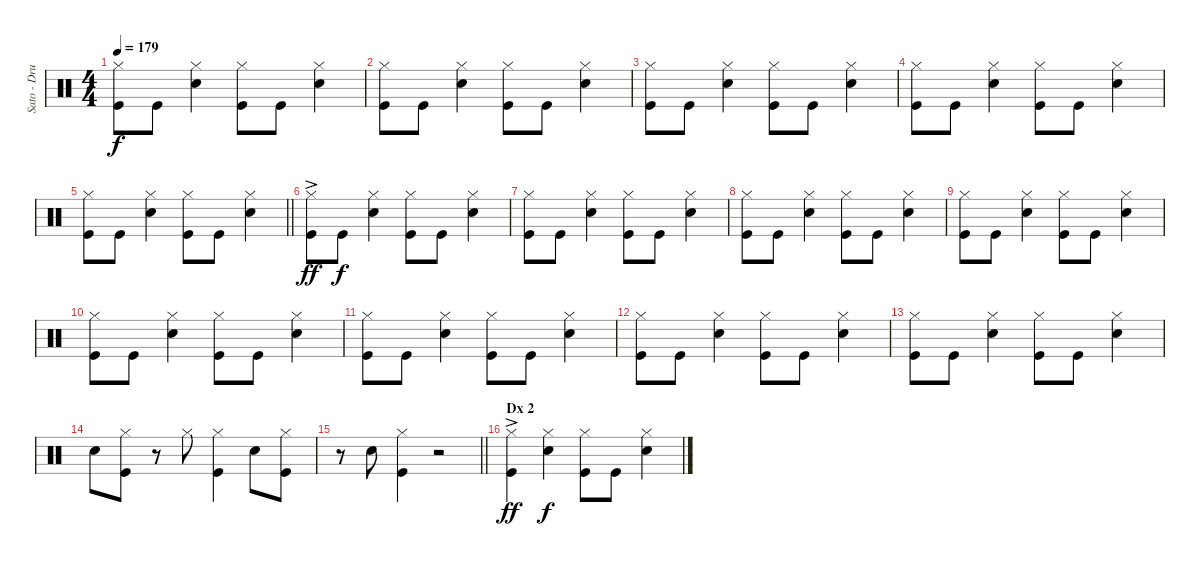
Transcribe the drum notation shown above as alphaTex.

\track ("Sato - Drums" "Sato - Dru") {instrument percussion}
\staff {score}
\articulation defaults
\ts (4 4)
\tempo 179
\clef neutral
\ks c
("Hi-Hat (closed)" "Kick (hit)").8{dy f} "Kick (hit)".8 ("Hi-Hat (closed)" "Electric Snare (hit)").4 ("Hi-Hat (closed)" "Kick (hit)").8 "Kick (hit)".8 ("Hi-Hat (closed)" "Electric Snare (hit)").4 |
("Hi-Hat (closed)" "Kick (hit)").8 "Kick (hit)".8 ("Hi-Hat (closed)" "Electric Snare (hit)").4 ("Hi-Hat (closed)" "Kick (hit)").8 "Kick (hit)".8 ("Hi-Hat (closed)" "Electric Snare (hit)").4 |
("Hi-Hat (closed)" "Kick (hit)").8 "Kick (hit)".8 ("Hi-Hat (closed)" "Electric Snare (hit)").4 ("Hi-Hat (closed)" "Kick (hit)").8 "Kick (hit)".8 ("Hi-Hat (closed)" "Electric Snare (hit)").4 |
("Hi-Hat (closed)" "Kick (hit)").8 "Kick (hit)".8 ("Hi-Hat (closed)" "Electric Snare (hit)").4 ("Hi-Hat (closed)" "Kick (hit)").8 "Kick (hit)".8 ("Hi-Hat (closed)" "Electric Snare (hit)").4 |
\barLineRight lightlight
("Hi-Hat (closed)" "Kick (hit)").8 "Kick (hit)".8 ("Hi-Hat (closed)" "Electric Snare (hit)").4 ("Hi-Hat (closed)" "Kick (hit)").8 "Kick (hit)".8 ("Hi-Hat (closed)" "Electric Snare (hit)").4 |
("Hi-Hat (closed)"{ac} "Kick (hit)"{ac}).8{dy ff} "Kick (hit)".8{dy f} ("Hi-Hat (closed)" "Electric Snare (hit)").4 ("Hi-Hat (closed)" "Kick (hit)").8 "Kick (hit)".8 ("Hi-Hat (closed)" "Electric Snare (hit)").4 |
("Hi-Hat (closed)" "Kick (hit)").8 "Kick (hit)".8 ("Hi-Hat (closed)" "Electric Snare (hit)").4 ("Hi-Hat (closed)" "Kick (hit)").8 "Kick (hit)".8 ("Hi-Hat (closed)" "Electric Snare (hit)").4 |
("Hi-Hat (closed)" "Kick (hit)").8 "Kick (hit)".8 ("Hi-Hat (closed)" "Electric Snare (hit)").4 ("Hi-Hat (closed)" "Kick (hit)").8 "Kick (hit)".8 ("Hi-Hat (closed)" "Electric Snare (hit)").4 |
("Hi-Hat (closed)" "Kick (hit)").8 "Kick (hit)".8 ("Hi-Hat (closed)" "Electric Snare (hit)").4 ("Hi-Hat (closed)" "Kick (hit)").8 "Kick (hit)".8 ("Hi-Hat (closed)" "Electric Snare (hit)").4 |
("Hi-Hat (closed)" "Kick (hit)").8 "Kick (hit)".8 ("Hi-Hat (closed)" "Electric Snare (hit)").4 ("Hi-Hat (closed)" "Kick (hit)").8 "Kick (hit)".8 ("Hi-Hat (closed)" "Electric Snare (hit)").4 |
("Hi-Hat (closed)" "Kick (hit)").8 "Kick (hit)".8 ("Hi-Hat (closed)" "Electric Snare (hit)").4 ("Hi-Hat (closed)" "Kick (hit)").8 "Kick (hit)".8 ("Hi-Hat (closed)" "Electric Snare (hit)").4 |
("Hi-Hat (closed)" "Kick (hit)").8 "Kick (hit)".8 ("Hi-Hat (closed)" "Electric Snare (hit)").4 ("Hi-Hat (closed)" "Kick (hit)").8 "Kick (hit)".8 ("Hi-Hat (closed)" "Electric Snare (hit)").4 |
("Hi-Hat (closed)" "Kick (hit)").8 "Kick (hit)".8 ("Hi-Hat (closed)" "Electric Snare (hit)").4 ("Hi-Hat (closed)" "Kick (hit)").8 "Kick (hit)".8 ("Hi-Hat (closed)" "Electric Snare (hit)").4 |
"Electric Snare (hit)".8 ("Hi-Hat (closed)" "Kick (hit)").8 r.8 "Hi-Hat (closed)".8 ("Hi-Hat (closed)" "Kick (hit)").4 "Electric Snare (hit)".8 ("Hi-Hat (closed)" "Kick (hit)").8 |
\barLineRight lightlight
r.8 "Electric Snare (hit)".8 ("Hi-Hat (closed)" "Kick (hit)").4 r.2 |
\section ("" "Dx 2")
("Hi-Hat (closed)"{ac} "Kick (hit)"{ac}).4{dy ff} ("Hi-Hat (closed)" "Electric Snare (hit)").4{dy f} ("Hi-Hat (closed)" "Kick (hit)").8 "Kick (hit)".8 ("Hi-Hat (closed)" "Electric Snare (hit)").4
